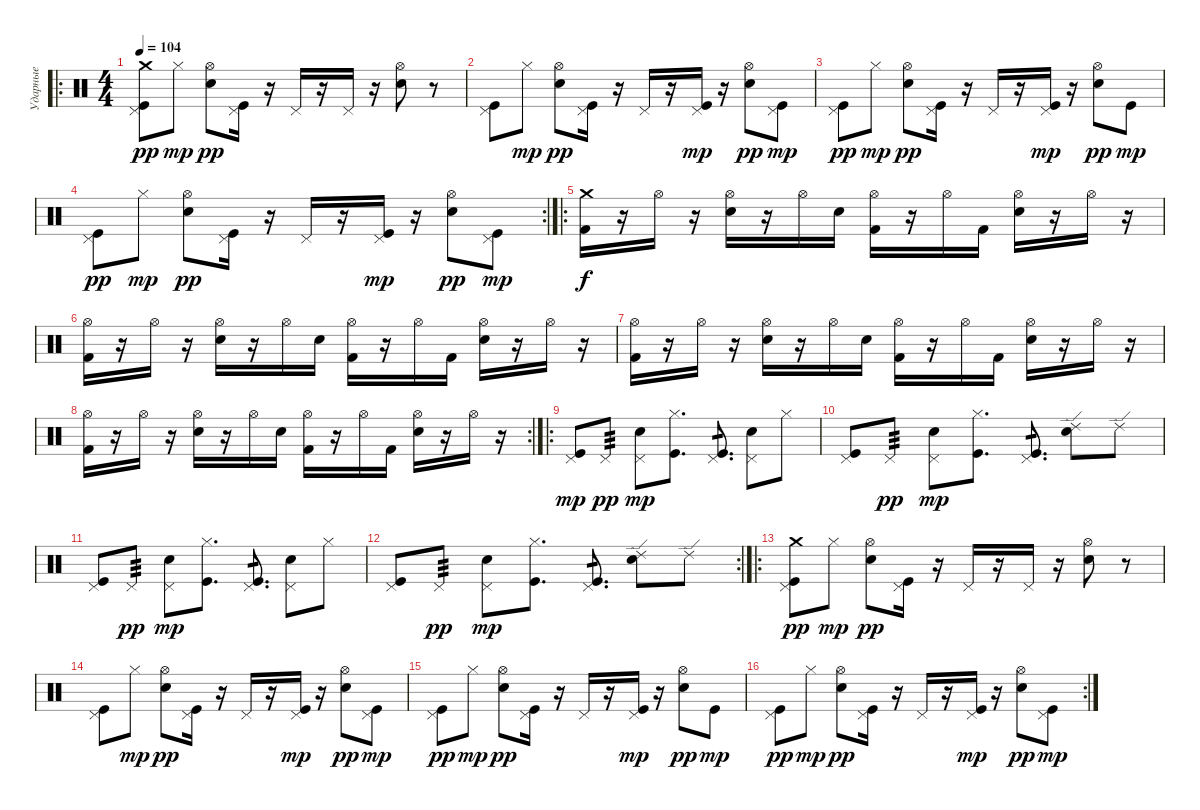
\track ("Ударные" "Ударные") {instrument percussion}
\staff {score}
\articulation defaults
\ro
\ts (4 4)
\tempo 104
\clef neutral
\ks c
("Crash medium (hit)" "Pedal Hi-Hat (hit)" "Kick (hit)").8{dy pp} "Hi-Hat (closed)".8{dy mp} ("Hi-Hat (open)" "Electric Snare (hit)").8{dy pp} ("Pedal Hi-Hat (hit)" "Kick (hit)").16 r.16 "Pedal Hi-Hat (hit)".16 r.16 "Pedal Hi-Hat (hit)".16 r.16 ("Hi-Hat (open)" "Electric Snare (hit)").8 r.8 |
("Pedal Hi-Hat (hit)" "Kick (hit)").8 "Hi-Hat (closed)".8{dy mp} ("Hi-Hat (open)" "Electric Snare (hit)").8{dy pp} ("Pedal Hi-Hat (hit)" "Kick (hit)").16 r.16 "Pedal Hi-Hat (hit)".16 r.16 ("Pedal Hi-Hat (hit)" "Kick (hit)").16{dy mp} r.16 ("Hi-Hat (open)" "Electric Snare (hit)").8{dy pp} ("Pedal Hi-Hat (hit)" "Kick (hit)").8{dy mp} |
("Pedal Hi-Hat (hit)" "Kick (hit)").8{dy pp} "Hi-Hat (closed)".8{dy mp} ("Hi-Hat (open)" "Electric Snare (hit)").8{dy pp} ("Pedal Hi-Hat (hit)" "Kick (hit)").16 r.16 "Pedal Hi-Hat (hit)".16 r.16 ("Pedal Hi-Hat (hit)" "Kick (hit)").16{dy mp} r.16 ("Hi-Hat (open)" "Electric Snare (hit)").8{dy pp} "Kick (hit)".8{dy mp} |
\rc 2
("Pedal Hi-Hat (hit)" "Kick (hit)").8{dy pp} "Hi-Hat (closed)".8{dy mp} ("Hi-Hat (open)" "Electric Snare (hit)").8{dy pp} ("Pedal Hi-Hat (hit)" "Kick (hit)").16 r.16 "Pedal Hi-Hat (hit)".16 r.16 ("Pedal Hi-Hat (hit)" "Kick (hit)").16{dy mp} r.16 ("Hi-Hat (open)" "Electric Snare (hit)").8{dy pp} ("Pedal Hi-Hat (hit)" "Kick (hit)").8{dy mp} |
\ro
("Crash medium (hit)" "Kick (hit) 2").16{dy f} r.16 "Hi-Hat (open)".16 r.16 ("Hi-Hat (open)" "Electric Snare (hit)").16 r.16 "Hi-Hat (open)".16 "Electric Snare (hit)".16 ("Hi-Hat (open)" "Kick (hit) 2").16 r.16 "Hi-Hat (open)".16 "Kick (hit) 2".16 ("Hi-Hat (open)" "Electric Snare (hit)").16 r.16 "Hi-Hat (open)".16 r.16 |
("Hi-Hat (open)" "Kick (hit) 2").16 r.16 "Hi-Hat (open)".16 r.16 ("Hi-Hat (open)" "Electric Snare (hit)").16 r.16 "Hi-Hat (open)".16 "Electric Snare (hit)".16 ("Hi-Hat (open)" "Kick (hit) 2").16 r.16 "Hi-Hat (open)".16 "Kick (hit) 2".16 ("Hi-Hat (open)" "Electric Snare (hit)").16 r.16 "Hi-Hat (open)".16 r.16 |
("Hi-Hat (open)" "Kick (hit) 2").16 r.16 "Hi-Hat (open)".16 r.16 ("Hi-Hat (open)" "Electric Snare (hit)").16 r.16 "Hi-Hat (open)".16 "Electric Snare (hit)".16 ("Hi-Hat (open)" "Kick (hit) 2").16 r.16 "Hi-Hat (open)".16 "Kick (hit) 2".16 ("Hi-Hat (open)" "Electric Snare (hit)").16 r.16 "Hi-Hat (open)".16 r.16 |
\rc 2
("Hi-Hat (open)" "Kick (hit) 2").16 r.16 "Hi-Hat (open)".16 r.16 ("Hi-Hat (open)" "Electric Snare (hit)").16 r.16 "Hi-Hat (open)".16 "Electric Snare (hit)".16 ("Hi-Hat (open)" "Kick (hit) 2").16 r.16 "Hi-Hat (open)".16 "Kick (hit) 2".16 ("Hi-Hat (open)" "Electric Snare (hit)").16 r.16 "Hi-Hat (open)".16 r.16 |
\ro
("Pedal Hi-Hat (hit)" "Kick (hit)").8{dy mp} "Pedal Hi-Hat (hit)".8{tp 3 dy pp} ("Pedal Hi-Hat (hit)" "Electric Snare (hit)").8{dy mp} ("Hi-Hat (closed)" "Kick (hit)").8{d} ("Pedal Hi-Hat (hit)" "Kick (hit)").8{d tp 1} ("Pedal Hi-Hat (hit)" "Electric Snare (hit)").8 "Hi-Hat (closed)".8 |
("Pedal Hi-Hat (hit)" "Kick (hit)").8 "Pedal Hi-Hat (hit)".8{tp 3 dy pp} ("Pedal Hi-Hat (hit)" "Electric Snare (hit)").8{dy mp} ("Hi-Hat (closed)" "Kick (hit)").8{d} ("Pedal Hi-Hat (hit)" "Kick (hit)").8{d tp 1} ("Ride (edge) 2" "Electric Snare (hit)").8 "Ride (edge) 2".8 |
("Pedal Hi-Hat (hit)" "Kick (hit)").8 "Pedal Hi-Hat (hit)".8{tp 3 dy pp} ("Pedal Hi-Hat (hit)" "Electric Snare (hit)").8{dy mp} ("Hi-Hat (closed)" "Kick (hit)").8{d} ("Pedal Hi-Hat (hit)" "Kick (hit)").8{d tp 1} ("Pedal Hi-Hat (hit)" "Electric Snare (hit)").8 "Hi-Hat (closed)".8 |
\rc 2
("Pedal Hi-Hat (hit)" "Kick (hit)").8 "Pedal Hi-Hat (hit)".8{tp 3 dy pp} ("Pedal Hi-Hat (hit)" "Electric Snare (hit)").8{dy mp} ("Hi-Hat (closed)" "Kick (hit)").8{d} ("Pedal Hi-Hat (hit)" "Kick (hit)").8{d tp 1} ("Ride (edge) 2" "Electric Snare (hit)").8 "Ride (edge) 2".8 |
\ro
("Crash medium (hit)" "Pedal Hi-Hat (hit)" "Kick (hit)").8{dy pp} "Hi-Hat (closed)".8{dy mp} ("Hi-Hat (open)" "Electric Snare (hit)").8{dy pp} ("Pedal Hi-Hat (hit)" "Kick (hit)").16 r.16 "Pedal Hi-Hat (hit)".16 r.16 "Pedal Hi-Hat (hit)".16 r.16 ("Hi-Hat (open)" "Electric Snare (hit)").8 r.8 |
("Pedal Hi-Hat (hit)" "Kick (hit)").8 "Hi-Hat (closed)".8{dy mp} ("Hi-Hat (open)" "Electric Snare (hit)").8{dy pp} ("Pedal Hi-Hat (hit)" "Kick (hit)").16 r.16 "Pedal Hi-Hat (hit)".16 r.16 ("Pedal Hi-Hat (hit)" "Kick (hit)").16{dy mp} r.16 ("Hi-Hat (open)" "Electric Snare (hit)").8{dy pp} ("Pedal Hi-Hat (hit)" "Kick (hit)").8{dy mp} |
("Pedal Hi-Hat (hit)" "Kick (hit)").8{dy pp} "Hi-Hat (closed)".8{dy mp} ("Hi-Hat (open)" "Electric Snare (hit)").8{dy pp} ("Pedal Hi-Hat (hit)" "Kick (hit)").16 r.16 "Pedal Hi-Hat (hit)".16 r.16 ("Pedal Hi-Hat (hit)" "Kick (hit)").16{dy mp} r.16 ("Hi-Hat (open)" "Electric Snare (hit)").8{dy pp} "Kick (hit)".8{dy mp} |
\rc 2
("Pedal Hi-Hat (hit)" "Kick (hit)").8{dy pp} "Hi-Hat (closed)".8{dy mp} ("Hi-Hat (open)" "Electric Snare (hit)").8{dy pp} ("Pedal Hi-Hat (hit)" "Kick (hit)").16 r.16 "Pedal Hi-Hat (hit)".16 r.16 ("Pedal Hi-Hat (hit)" "Kick (hit)").16{dy mp} r.16 ("Hi-Hat (open)" "Electric Snare (hit)").8{dy pp} ("Pedal Hi-Hat (hit)" "Kick (hit)").8{dy mp}
